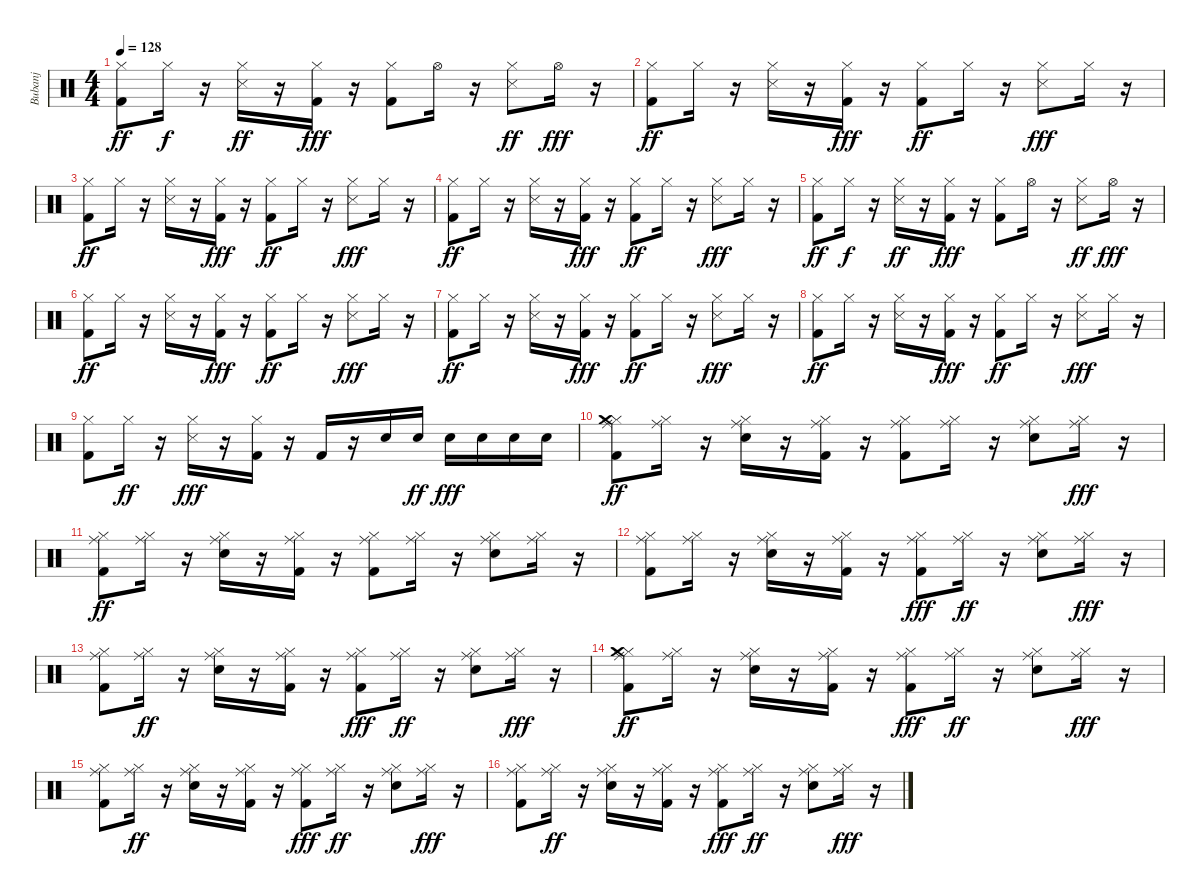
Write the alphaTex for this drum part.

\track ("Bubanj" "Bubanj") {instrument percussion}
\staff {score}
\articulation defaults
\ts (4 4)
\tempo 128
\clef neutral
\ks c
("Kick (hit) 2" "Hi-Hat (closed)").8{dy ff} "Hi-Hat (closed)".16{dy f} r.16 ("Hi-Hat (closed)" "Snare (side stick) 3").16{dy ff} r.16 ("Kick (hit) 2" "Hi-Hat (closed)").16{dy fff} r.16 ("Hi-Hat (closed)" "Kick (hit) 2").8 "Hi-Hat (open)".16 r.16 ("Hi-Hat (closed)" "Snare (side stick) 3").8{dy ff} "Hi-Hat (open)".16{dy fff} r.16 |
("Kick (hit) 2" "Hi-Hat (closed)").8{dy ff} "Hi-Hat (closed)".16 r.16 ("Snare (side stick) 3" "Hi-Hat (closed)").16 r.16 ("Hi-Hat (closed)" "Kick (hit) 2").16{dy fff} r.16 ("Hi-Hat (closed)" "Kick (hit) 2").8{dy ff} "Hi-Hat (closed)".16 r.16 ("Hi-Hat (closed)" "Snare (side stick) 3").8{dy fff} "Hi-Hat (closed)".16 r.16 |
("Kick (hit) 2" "Hi-Hat (closed)").8{dy ff} "Hi-Hat (closed)".16 r.16 ("Snare (side stick) 3" "Hi-Hat (closed)").16 r.16 ("Hi-Hat (closed)" "Kick (hit) 2").16{dy fff} r.16 ("Hi-Hat (closed)" "Kick (hit) 2").8{dy ff} "Hi-Hat (closed)".16 r.16 ("Hi-Hat (closed)" "Snare (side stick) 3").8{dy fff} "Hi-Hat (closed)".16 r.16 |
("Kick (hit) 2" "Hi-Hat (closed)").8{dy ff} "Hi-Hat (closed)".16 r.16 ("Snare (side stick) 3" "Hi-Hat (closed)").16 r.16 ("Hi-Hat (closed)" "Kick (hit) 2").16{dy fff} r.16 ("Hi-Hat (closed)" "Kick (hit) 2").8{dy ff} "Hi-Hat (closed)".16 r.16 ("Hi-Hat (closed)" "Snare (side stick) 3").8{dy fff} "Hi-Hat (closed)".16 r.16 |
("Kick (hit) 2" "Hi-Hat (closed)").8{dy ff} "Hi-Hat (closed)".16{dy f} r.16 ("Hi-Hat (closed)" "Snare (side stick) 3").16{dy ff} r.16 ("Kick (hit) 2" "Hi-Hat (closed)").16{dy fff} r.16 ("Hi-Hat (closed)" "Kick (hit) 2").8 "Hi-Hat (open)".16 r.16 ("Hi-Hat (closed)" "Snare (side stick) 3").8{dy ff} "Hi-Hat (open)".16{dy fff} r.16 |
("Kick (hit) 2" "Hi-Hat (closed)").8{dy ff} "Hi-Hat (closed)".16 r.16 ("Snare (side stick) 3" "Hi-Hat (closed)").16 r.16 ("Hi-Hat (closed)" "Kick (hit) 2").16{dy fff} r.16 ("Hi-Hat (closed)" "Kick (hit) 2").8{dy ff} "Hi-Hat (closed)".16 r.16 ("Hi-Hat (closed)" "Snare (side stick) 3").8{dy fff} "Hi-Hat (closed)".16 r.16 |
("Kick (hit) 2" "Hi-Hat (closed)").8{dy ff} "Hi-Hat (closed)".16 r.16 ("Snare (side stick) 3" "Hi-Hat (closed)").16 r.16 ("Hi-Hat (closed)" "Kick (hit) 2").16{dy fff} r.16 ("Hi-Hat (closed)" "Kick (hit) 2").8{dy ff} "Hi-Hat (closed)".16 r.16 ("Hi-Hat (closed)" "Snare (side stick) 3").8{dy fff} "Hi-Hat (closed)".16 r.16 |
("Kick (hit) 2" "Hi-Hat (closed)").8{dy ff} "Hi-Hat (closed)".16 r.16 ("Snare (side stick) 3" "Hi-Hat (closed)").16 r.16 ("Hi-Hat (closed)" "Kick (hit) 2").16{dy fff} r.16 ("Hi-Hat (closed)" "Kick (hit) 2").8{dy ff} "Hi-Hat (closed)".16 r.16 ("Hi-Hat (closed)" "Snare (side stick) 3").8{dy fff} "Hi-Hat (closed)".16 r.16 |
("Kick (hit) 2" "Hi-Hat (closed)").8 "Hi-Hat (closed)".16{dy ff} r.16 ("Hi-Hat (closed)" "Snare (side stick) 3").16{dy fff} r.16 ("Hi-Hat (closed)" "Kick (hit) 2").16 r.16 "Kick (hit) 2".16 r.16 "Electric Snare (hit)".16 "Electric Snare (hit)".16{dy ff} "Electric Snare (hit)".16{dy fff} "Electric Snare (hit)".16 "Electric Snare (hit)".16 "Electric Snare (hit)".16 |
("Hi-Hat (closed)" "Kick (hit) 2" "Crash medium (hit)" "Ride (middle)").8{dy ff} ("Hi-Hat (closed)" "Ride (middle)").16 r.16 ("Hi-Hat (closed)" "Electric Snare (hit)" "Ride (middle)").16 r.16 ("Kick (hit) 2" "Hi-Hat (closed)" "Ride (middle)").16 r.16 ("Hi-Hat (closed)" "Kick (hit) 2" "Ride (middle)").8 ("Hi-Hat (closed)" "Ride (middle)").16 r.16 ("Hi-Hat (closed)" "Electric Snare (hit)" "Ride (middle)").8 ("Hi-Hat (closed)" "Ride (middle)").16{dy fff} r.16 |
("Hi-Hat (closed)" "Kick (hit) 2" "Ride (middle)").8{dy ff} ("Hi-Hat (closed)" "Ride (middle)").16 r.16 ("Hi-Hat (closed)" "Electric Snare (hit)" "Ride (middle)").16 r.16 ("Kick (hit) 2" "Hi-Hat (closed)" "Ride (middle)").16 r.16 ("Hi-Hat (closed)" "Kick (hit) 2" "Ride (middle)").8 ("Hi-Hat (closed)" "Ride (middle)").16 r.16 ("Hi-Hat (closed)" "Electric Snare (hit)" "Ride (middle)").8 ("Hi-Hat (closed)" "Ride (middle)").16 r.16 |
("Hi-Hat (closed)" "Kick (hit) 2" "Ride (middle)").8 ("Hi-Hat (closed)" "Ride (middle)").16 r.16 ("Hi-Hat (closed)" "Electric Snare (hit)" "Ride (middle)").16 r.16 ("Kick (hit) 2" "Hi-Hat (closed)" "Ride (middle)").16 r.16 ("Hi-Hat (closed)" "Kick (hit) 2" "Ride (middle)").8{dy fff} ("Hi-Hat (closed)" "Ride (middle)").16{dy ff} r.16 ("Hi-Hat (closed)" "Electric Snare (hit)" "Ride (middle)").8 ("Hi-Hat (closed)" "Ride (middle)").16{dy fff} r.16 |
("Hi-Hat (closed)" "Kick (hit) 2" "Ride (middle)").8 ("Hi-Hat (closed)" "Ride (middle)").16{dy ff} r.16 ("Hi-Hat (closed)" "Electric Snare (hit)" "Ride (middle)").16 r.16 ("Kick (hit) 2" "Hi-Hat (closed)" "Ride (middle)").16 r.16 ("Hi-Hat (closed)" "Kick (hit) 2" "Ride (middle)").8{dy fff} ("Hi-Hat (closed)" "Ride (middle)").16{dy ff} r.16 ("Hi-Hat (closed)" "Electric Snare (hit)" "Ride (middle)").8 ("Hi-Hat (closed)" "Ride (middle)").16{dy fff} r.16 |
("Hi-Hat (closed)" "Kick (hit) 2" "Crash medium (hit)" "Ride (middle)").8{dy ff} ("Hi-Hat (closed)" "Ride (middle)").16 r.16 ("Hi-Hat (closed)" "Electric Snare (hit)" "Ride (middle)").16 r.16 ("Kick (hit) 2" "Hi-Hat (closed)" "Ride (middle)").16 r.16 ("Hi-Hat (closed)" "Kick (hit) 2" "Ride (middle)").8{dy fff} ("Hi-Hat (closed)" "Ride (middle)").16{dy ff} r.16 ("Hi-Hat (closed)" "Electric Snare (hit)" "Ride (middle)").8 ("Hi-Hat (closed)" "Ride (middle)").16{dy fff} r.16 |
("Hi-Hat (closed)" "Kick (hit) 2" "Ride (middle)").8 ("Hi-Hat (closed)" "Ride (middle)").16{dy ff} r.16 ("Hi-Hat (closed)" "Electric Snare (hit)" "Ride (middle)").16 r.16 ("Kick (hit) 2" "Hi-Hat (closed)" "Ride (middle)").16 r.16 ("Hi-Hat (closed)" "Kick (hit) 2" "Ride (middle)").8{dy fff} ("Hi-Hat (closed)" "Ride (middle)").16{dy ff} r.16 ("Hi-Hat (closed)" "Electric Snare (hit)" "Ride (middle)").8 ("Hi-Hat (closed)" "Ride (middle)").16{dy fff} r.16 |
("Hi-Hat (closed)" "Kick (hit) 2" "Ride (middle)").8 ("Hi-Hat (closed)" "Ride (middle)").16{dy ff} r.16 ("Hi-Hat (closed)" "Electric Snare (hit)" "Ride (middle)").16 r.16 ("Kick (hit) 2" "Hi-Hat (closed)" "Ride (middle)").16 r.16 ("Hi-Hat (closed)" "Kick (hit) 2" "Ride (middle)").8{dy fff} ("Hi-Hat (closed)" "Ride (middle)").16{dy ff} r.16 ("Hi-Hat (closed)" "Electric Snare (hit)" "Ride (middle)").8 ("Hi-Hat (closed)" "Ride (middle)").16{dy fff} r.16
